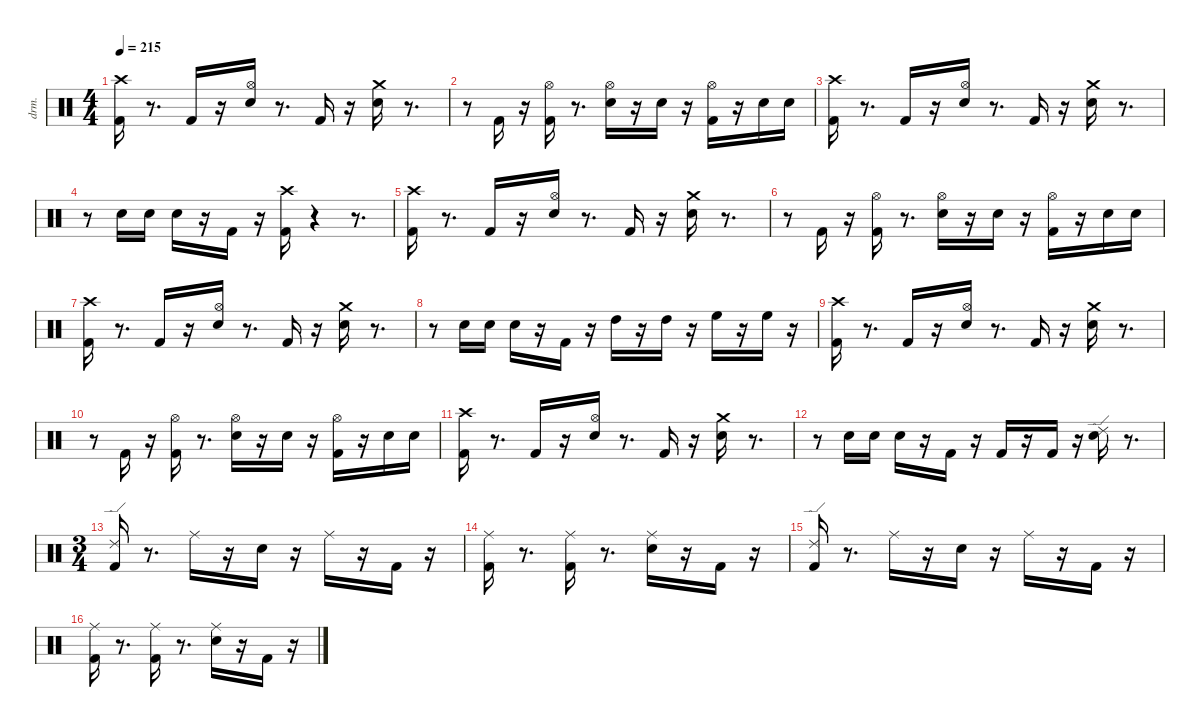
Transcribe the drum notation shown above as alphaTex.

\defaultSystemsLayout 4
\hideDynamics
\bracketExtendMode nobrackets
\otherSystemsTrackNameOrientation horizontal
\track ("drums(暫定)" "drm.") {instrument percussion}
\staff {score}
\articulation defaults
\ts (4 4)
\tempo 215
\clef neutral
\ks aminor
("Kick (hit) 2" "Crash high (hit)"{acc #}).16{dy fff beam Down} r.8{d beam Down} "Kick (hit) 2".16{dy f beam Up} r.16{beam Up} ("Snare (hit) 2" "Hi-Hat (open)"{acc #}).16{dy ff beam Down} r.8{d beam Down} "Kick (hit) 2".16{beam Up} r.16{beam Up} ("Snare (hit) 2" "Crash medium (hit)").16{beam Down} r.8{d beam Down} |
r.8{beam Down} "Kick (hit) 2".16{dy mf beam Up} r.16{beam Up} ("Kick (hit) 2" "Hi-Hat (open)"{acc #}).16{dy fff beam Down} r.8{d beam Down} ("Snare (hit) 2" "Hi-Hat (open)"{acc #}).16{beam Down} r.16{beam Down} "Snare (hit) 2".16{dy p beam Down} r.16{beam Down} ("Kick (hit) 2" "Hi-Hat (open)"{acc #}).16{dy ff beam Down} r.16{beam Down} "Snare (hit) 2".16{dy mp beam Down} "Snare (hit) 2".16{dy ppp beam Down} |
("Kick (hit) 2" "Crash high (hit)"{acc #}).16{dy fff beam Down} r.8{d beam Down} "Kick (hit) 2".16{dy f beam Up} r.16{beam Up} ("Snare (hit) 2" "Hi-Hat (open)"{acc #}).16{dy ff beam Down} r.8{d beam Down} "Kick (hit) 2".16{beam Up} r.16{beam Up} ("Snare (hit) 2" "Crash medium (hit)").16{beam Down} r.8{d beam Down} |
r.8{beam Down} "Snare (hit) 2".16{dy mf beam Down} "Snare (hit) 2".16{dy p beam Down} "Snare (hit) 2".16{dy ff beam Down} r.16{beam Down} "Kick (hit) 2".16{dy mf beam Up} r.16{beam Up} ("Kick (hit) 2" "Crash high (hit)"{acc #}).16{dy fff beam Down} r.4{beam Down} r.8{d beam Down} |
("Kick (hit) 2" "Crash high (hit)"{acc #}).16{beam Down} r.8{d beam Down} "Kick (hit) 2".16{dy f beam Up} r.16{beam Up} ("Snare (hit) 2" "Hi-Hat (open)"{acc #}).16{dy ff beam Down} r.8{d beam Down} "Kick (hit) 2".16{beam Up} r.16{beam Up} ("Snare (hit) 2" "Crash medium (hit)").16{beam Down} r.8{d beam Down} |
r.8{beam Down} "Kick (hit) 2".16{dy mf beam Up} r.16{beam Up} ("Kick (hit) 2" "Hi-Hat (open)"{acc #}).16{dy fff beam Down} r.8{d beam Down} ("Snare (hit) 2" "Hi-Hat (open)"{acc #}).16{beam Down} r.16{beam Down} "Snare (hit) 2".16{dy p beam Down} r.16{beam Down} ("Kick (hit) 2" "Hi-Hat (open)"{acc #}).16{dy ff beam Down} r.16{beam Down} "Snare (hit) 2".16{dy mp beam Down} "Snare (hit) 2".16{dy ppp beam Down} |
("Kick (hit) 2" "Crash high (hit)"{acc #}).16{dy fff beam Down} r.8{d beam Down} "Kick (hit) 2".16{dy f beam Up} r.16{beam Up} ("Snare (hit) 2" "Hi-Hat (open)"{acc #}).16{dy ff beam Down} r.8{d beam Down} "Kick (hit) 2".16{beam Up} r.16{beam Up} ("Snare (hit) 2" "Crash medium (hit)").16{beam Down} r.8{d beam Down} |
r.8{beam Down} "Snare (hit) 2".16{dy mf beam Down} "Snare (hit) 2".16{dy p beam Down} "Snare (hit) 2".16{dy ff beam Down} r.16{beam Down} "Kick (hit) 2".16{beam Up} r.16{beam Up} "High Tom (hit)".16{beam Down} r.16{beam Down} "High Tom (hit)".16{dy f beam Down} r.16{beam Down} "High Floor Tom (hit)".16{dy ff beam Down} r.16{beam Down} "High Floor Tom (hit)".16{dy f beam Down} r.16{beam Down} |
("Kick (hit) 2" "Crash high (hit)"{acc #}).16{dy fff beam Down} r.8{d beam Down} "Kick (hit) 2".16{dy f beam Up} r.16{beam Up} ("Snare (hit) 2" "Hi-Hat (open)"{acc #}).16{dy ff beam Down} r.8{d beam Down} "Kick (hit) 2".16{beam Up} r.16{beam Up} ("Snare (hit) 2" "Crash medium (hit)").16{beam Down} r.8{d beam Down} |
r.8{beam Down} "Kick (hit) 2".16{dy mf beam Up} r.16{beam Up} ("Kick (hit) 2" "Hi-Hat (open)"{acc #}).16{dy fff beam Down} r.8{d beam Down} ("Snare (hit) 2" "Hi-Hat (open)"{acc #}).16{beam Down} r.16{beam Down} "Snare (hit) 2".16{dy p beam Down} r.16{beam Down} ("Kick (hit) 2" "Hi-Hat (open)"{acc #}).16{dy ff beam Down} r.16{beam Down} "Snare (hit) 2".16{dy mp beam Down} "Snare (hit) 2".16{dy ppp beam Down} |
("Kick (hit) 2" "Crash high (hit)"{acc #}).16{dy fff beam Down} r.8{d beam Down} "Kick (hit) 2".16{dy f beam Up} r.16{beam Up} ("Snare (hit) 2" "Hi-Hat (open)"{acc #}).16{dy ff beam Down} r.8{d beam Down} "Kick (hit) 2".16{beam Up} r.16{beam Up} ("Snare (hit) 2" "Crash medium (hit)").16{beam Down} r.8{d beam Down} |
r.8{beam Down} "Snare (hit) 2".16{dy mf beam Down} "Snare (hit) 2".16{dy p beam Down} "Snare (hit) 2".16{dy ff beam Down} r.16{beam Down} "Kick (hit) 2".16{dy mf beam Up} r.16{beam Up} "Kick (hit) 2".16{dy fff beam Up} r.16{beam Up} "Kick (hit) 2".16{dy ff beam Up} r.16{beam Up} ("Snare (hit) 2" "Ride (edge) 2").16{beam Down} r.8{d beam Down} |
\ts (3 4)
("Kick (hit) 2" "Ride (edge) 2").16{dy fff beam Up} r.8{d beam Up} "Ride (middle)"{acc #}.16{dy pp beam Down} r.16{beam Down} "Snare (hit) 2".16{dy ff beam Down} r.16{beam Down} "Ride (middle)"{acc #}.16{beam Down} r.16{beam Down} "Kick (hit) 2".16{dy mf beam Up} r.16{beam Up} |
("Kick (hit) 2" "Ride (middle)"{acc #}).16{dy fff beam Down} r.8{d beam Down} ("Kick (hit) 2" "Ride (middle)"{acc #}).16{dy ff beam Down} r.8{d beam Down} ("Snare (hit) 2" "Ride (middle)"{acc #}).16{beam Down} r.16{beam Down} "Kick (hit) 2".16{dy mp beam Up} r.16{beam Up} |
("Kick (hit) 2" "Ride (edge) 2").16{dy fff beam Up} r.8{d beam Up} "Ride (middle)"{acc #}.16{dy pp beam Down} r.16{beam Down} "Snare (hit) 2".16{dy ff beam Down} r.16{beam Down} "Ride (middle)"{acc #}.16{beam Down} r.16{beam Down} "Kick (hit) 2".16{dy mf beam Up} r.16{beam Up} |
("Kick (hit) 2" "Ride (middle)"{acc #}).16{dy fff beam Down} r.8{d beam Down} ("Kick (hit) 2" "Ride (middle)"{acc #}).16{dy ff beam Down} r.8{d beam Down} ("Snare (hit) 2" "Ride (middle)"{acc #}).16{beam Down} r.16{beam Down} "Kick (hit) 2".16{dy mp beam Up} r.16{beam Up}
